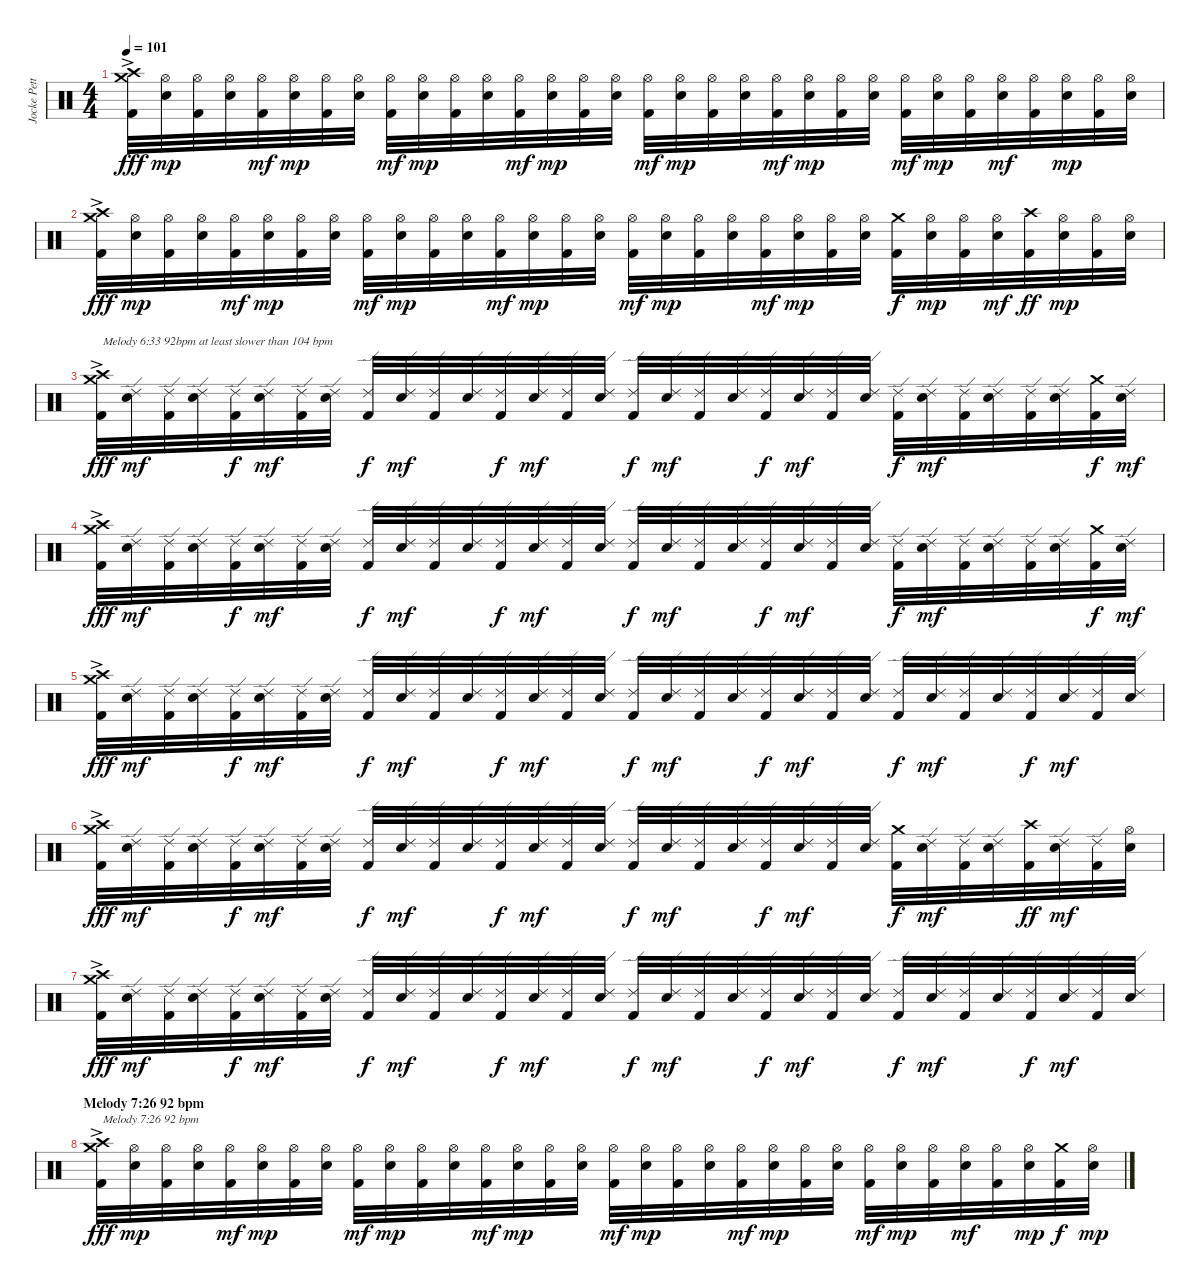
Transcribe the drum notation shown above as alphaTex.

\track ("Jocke Pettersson" "Jocke Pett") {instrument percussion}
\staff {score}
\articulation defaults
\ts (4 4)
\tempo 101
\clef neutral
\ks c
("Kick (hit) 2" "Crash high (hit)"{ac} "Crash medium (hit)"{ac}).32{dy fff} ("Electric Snare (hit)" "Hi-Hat (open)").32{dy mp} ("Kick (hit) 2" "Hi-Hat (open)").32 ("Electric Snare (hit)" "Hi-Hat (open)").32 ("Kick (hit) 2" "Hi-Hat (open)").32{dy mf} ("Electric Snare (hit)" "Hi-Hat (open)").32{dy mp} ("Kick (hit) 2" "Hi-Hat (open)").32 ("Electric Snare (hit)" "Hi-Hat (open)").32 ("Kick (hit) 2" "Hi-Hat (open)").32{dy mf} ("Electric Snare (hit)" "Hi-Hat (open)").32{dy mp} ("Kick (hit) 2" "Hi-Hat (open)").32 ("Electric Snare (hit)" "Hi-Hat (open)").32 ("Kick (hit) 2" "Hi-Hat (open)").32{dy mf} ("Electric Snare (hit)" "Hi-Hat (open)").32{dy mp} ("Kick (hit) 2" "Hi-Hat (open)").32 ("Electric Snare (hit)" "Hi-Hat (open)").32 ("Kick (hit) 2" "Hi-Hat (open)").32{dy mf} ("Electric Snare (hit)" "Hi-Hat (open)").32{dy mp} ("Kick (hit) 2" "Hi-Hat (open)").32 ("Electric Snare (hit)" "Hi-Hat (open)").32 ("Kick (hit) 2" "Hi-Hat (open)").32{dy mf} ("Electric Snare (hit)" "Hi-Hat (open)").32{dy mp} ("Kick (hit) 2" "Hi-Hat (open)").32 ("Electric Snare (hit)" "Hi-Hat (open)").32 ("Kick (hit) 2" "Hi-Hat (open)").32{dy mf} ("Electric Snare (hit)" "Hi-Hat (open)").32{dy mp} ("Kick (hit) 2" "Hi-Hat (open)").32 ("Electric Snare (hit)" "Hi-Hat (open)").32{dy mf} ("Kick (hit) 2" "Hi-Hat (open)").32 ("Electric Snare (hit)" "Hi-Hat (open)").32{dy mp} ("Kick (hit) 2" "Hi-Hat (open)").32 ("Electric Snare (hit)" "Hi-Hat (open)").32 |
("Kick (hit) 2" "Crash high (hit)"{ac} "Crash medium (hit)"{ac}).32{dy fff} ("Electric Snare (hit)" "Hi-Hat (open)").32{dy mp} ("Kick (hit) 2" "Hi-Hat (open)").32 ("Electric Snare (hit)" "Hi-Hat (open)").32 ("Kick (hit) 2" "Hi-Hat (open)").32{dy mf} ("Electric Snare (hit)" "Hi-Hat (open)").32{dy mp} ("Kick (hit) 2" "Hi-Hat (open)").32 ("Electric Snare (hit)" "Hi-Hat (open)").32 ("Kick (hit) 2" "Hi-Hat (open)").32{dy mf} ("Electric Snare (hit)" "Hi-Hat (open)").32{dy mp} ("Kick (hit) 2" "Hi-Hat (open)").32 ("Electric Snare (hit)" "Hi-Hat (open)").32 ("Kick (hit) 2" "Hi-Hat (open)").32{dy mf} ("Electric Snare (hit)" "Hi-Hat (open)").32{dy mp} ("Kick (hit) 2" "Hi-Hat (open)").32 ("Electric Snare (hit)" "Hi-Hat (open)").32 ("Kick (hit) 2" "Hi-Hat (open)").32{dy mf} ("Electric Snare (hit)" "Hi-Hat (open)").32{dy mp} ("Kick (hit) 2" "Hi-Hat (open)").32 ("Electric Snare (hit)" "Hi-Hat (open)").32 ("Kick (hit) 2" "Hi-Hat (open)").32{dy mf} ("Electric Snare (hit)" "Hi-Hat (open)").32{dy mp} ("Kick (hit) 2" "Hi-Hat (open)").32 ("Electric Snare (hit)" "Hi-Hat (open)").32 ("Kick (hit) 2" "Crash medium (hit)").32{dy f} ("Electric Snare (hit)" "Hi-Hat (open)").32{dy mp} ("Kick (hit) 2" "Hi-Hat (open)").32 ("Electric Snare (hit)" "Hi-Hat (open)").32{dy mf} ("Kick (hit) 2" "Crash high (hit)").32{dy ff} ("Electric Snare (hit)" "Hi-Hat (open)").32{dy mp} ("Kick (hit) 2" "Hi-Hat (open)").32 ("Electric Snare (hit)" "Hi-Hat (open)").32 |
("Kick (hit) 2" "Crash high (hit)"{ac} "Crash medium (hit)"{ac}).32{txt "Melody 6:33 92bpm at least slower than 104 bpm" dy fff} ("Electric Snare (hit)" "Ride (edge) 2").32{dy mf} ("Kick (hit) 2" "Ride (edge) 2").32 ("Electric Snare (hit)" "Ride (edge) 2").32 ("Kick (hit) 2" "Ride (edge) 2").32{dy f} ("Electric Snare (hit)" "Ride (edge) 2").32{dy mf} ("Kick (hit) 2" "Ride (edge) 2").32 ("Electric Snare (hit)" "Ride (edge) 2").32 ("Kick (hit) 2" "Ride (edge) 2").32{dy f} ("Electric Snare (hit)" "Ride (edge) 2").32{dy mf} ("Kick (hit) 2" "Ride (edge) 2").32 ("Electric Snare (hit)" "Ride (edge) 2").32 ("Kick (hit) 2" "Ride (edge) 2").32{dy f} ("Electric Snare (hit)" "Ride (edge) 2").32{dy mf} ("Kick (hit) 2" "Ride (edge) 2").32 ("Electric Snare (hit)" "Ride (edge) 2").32 ("Kick (hit) 2" "Ride (edge) 2").32{dy f} ("Electric Snare (hit)" "Ride (edge) 2").32{dy mf} ("Kick (hit) 2" "Ride (edge) 2").32 ("Electric Snare (hit)" "Ride (edge) 2").32 ("Kick (hit) 2" "Ride (edge) 2").32{dy f} ("Electric Snare (hit)" "Ride (edge) 2").32{dy mf} ("Kick (hit) 2" "Ride (edge) 2").32 ("Electric Snare (hit)" "Ride (edge) 2").32 ("Kick (hit) 2" "Ride (edge) 2").32{dy f} ("Electric Snare (hit)" "Ride (edge) 2").32{dy mf} ("Kick (hit) 2" "Ride (edge) 2").32 ("Electric Snare (hit)" "Ride (edge) 2").32 ("Kick (hit) 2" "Ride (edge) 2").32 ("Electric Snare (hit)" "Ride (edge) 2").32 ("Kick (hit) 2" "Crash medium (hit)").32{dy f} ("Electric Snare (hit)" "Ride (edge) 2").32{dy mf} |
("Kick (hit) 2" "Crash high (hit)"{ac} "Crash medium (hit)"{ac}).32{dy fff} ("Electric Snare (hit)" "Ride (edge) 2").32{dy mf} ("Kick (hit) 2" "Ride (edge) 2").32 ("Electric Snare (hit)" "Ride (edge) 2").32 ("Kick (hit) 2" "Ride (edge) 2").32{dy f} ("Electric Snare (hit)" "Ride (edge) 2").32{dy mf} ("Kick (hit) 2" "Ride (edge) 2").32 ("Electric Snare (hit)" "Ride (edge) 2").32 ("Kick (hit) 2" "Ride (edge) 2").32{dy f} ("Electric Snare (hit)" "Ride (edge) 2").32{dy mf} ("Kick (hit) 2" "Ride (edge) 2").32 ("Electric Snare (hit)" "Ride (edge) 2").32 ("Kick (hit) 2" "Ride (edge) 2").32{dy f} ("Electric Snare (hit)" "Ride (edge) 2").32{dy mf} ("Kick (hit) 2" "Ride (edge) 2").32 ("Electric Snare (hit)" "Ride (edge) 2").32 ("Kick (hit) 2" "Ride (edge) 2").32{dy f} ("Electric Snare (hit)" "Ride (edge) 2").32{dy mf} ("Kick (hit) 2" "Ride (edge) 2").32 ("Electric Snare (hit)" "Ride (edge) 2").32 ("Kick (hit) 2" "Ride (edge) 2").32{dy f} ("Electric Snare (hit)" "Ride (edge) 2").32{dy mf} ("Kick (hit) 2" "Ride (edge) 2").32 ("Electric Snare (hit)" "Ride (edge) 2").32 ("Kick (hit) 2" "Ride (edge) 2").32{dy f} ("Electric Snare (hit)" "Ride (edge) 2").32{dy mf} ("Kick (hit) 2" "Ride (edge) 2").32 ("Electric Snare (hit)" "Ride (edge) 2").32 ("Kick (hit) 2" "Ride (edge) 2").32 ("Electric Snare (hit)" "Ride (edge) 2").32 ("Kick (hit) 2" "Crash medium (hit)").32{dy f} ("Electric Snare (hit)" "Ride (edge) 2").32{dy mf} |
("Kick (hit) 2" "Crash high (hit)"{ac} "Crash medium (hit)"{ac}).32{dy fff} ("Electric Snare (hit)" "Ride (edge) 2").32{dy mf} ("Kick (hit) 2" "Ride (edge) 2").32 ("Electric Snare (hit)" "Ride (edge) 2").32 ("Kick (hit) 2" "Ride (edge) 2").32{dy f} ("Electric Snare (hit)" "Ride (edge) 2").32{dy mf} ("Kick (hit) 2" "Ride (edge) 2").32 ("Electric Snare (hit)" "Ride (edge) 2").32 ("Kick (hit) 2" "Ride (edge) 2").32{dy f} ("Electric Snare (hit)" "Ride (edge) 2").32{dy mf} ("Kick (hit) 2" "Ride (edge) 2").32 ("Electric Snare (hit)" "Ride (edge) 2").32 ("Kick (hit) 2" "Ride (edge) 2").32{dy f} ("Electric Snare (hit)" "Ride (edge) 2").32{dy mf} ("Kick (hit) 2" "Ride (edge) 2").32 ("Electric Snare (hit)" "Ride (edge) 2").32 ("Kick (hit) 2" "Ride (edge) 2").32{dy f} ("Electric Snare (hit)" "Ride (edge) 2").32{dy mf} ("Kick (hit) 2" "Ride (edge) 2").32 ("Electric Snare (hit)" "Ride (edge) 2").32 ("Kick (hit) 2" "Ride (edge) 2").32{dy f} ("Electric Snare (hit)" "Ride (edge) 2").32{dy mf} ("Kick (hit) 2" "Ride (edge) 2").32 ("Electric Snare (hit)" "Ride (edge) 2").32 ("Kick (hit) 2" "Ride (edge) 2").32{dy f} ("Electric Snare (hit)" "Ride (edge) 2").32{dy mf} ("Kick (hit) 2" "Ride (edge) 2").32 ("Electric Snare (hit)" "Ride (edge) 2").32 ("Kick (hit) 2" "Ride (edge) 2").32{dy f} ("Electric Snare (hit)" "Ride (edge) 2").32{dy mf} ("Kick (hit) 2" "Ride (edge) 2").32 ("Electric Snare (hit)" "Ride (edge) 2").32 |
("Kick (hit) 2" "Crash high (hit)"{ac} "Crash medium (hit)"{ac}).32{dy fff} ("Electric Snare (hit)" "Ride (edge) 2").32{dy mf} ("Kick (hit) 2" "Ride (edge) 2").32 ("Electric Snare (hit)" "Ride (edge) 2").32 ("Kick (hit) 2" "Ride (edge) 2").32{dy f} ("Electric Snare (hit)" "Ride (edge) 2").32{dy mf} ("Kick (hit) 2" "Ride (edge) 2").32 ("Electric Snare (hit)" "Ride (edge) 2").32 ("Kick (hit) 2" "Ride (edge) 2").32{dy f} ("Electric Snare (hit)" "Ride (edge) 2").32{dy mf} ("Kick (hit) 2" "Ride (edge) 2").32 ("Electric Snare (hit)" "Ride (edge) 2").32 ("Kick (hit) 2" "Ride (edge) 2").32{dy f} ("Electric Snare (hit)" "Ride (edge) 2").32{dy mf} ("Kick (hit) 2" "Ride (edge) 2").32 ("Electric Snare (hit)" "Ride (edge) 2").32 ("Kick (hit) 2" "Ride (edge) 2").32{dy f} ("Electric Snare (hit)" "Ride (edge) 2").32{dy mf} ("Kick (hit) 2" "Ride (edge) 2").32 ("Electric Snare (hit)" "Ride (edge) 2").32 ("Kick (hit) 2" "Ride (edge) 2").32{dy f} ("Electric Snare (hit)" "Ride (edge) 2").32{dy mf} ("Kick (hit) 2" "Ride (edge) 2").32 ("Electric Snare (hit)" "Ride (edge) 2").32 ("Kick (hit) 2" "Crash medium (hit)").32{dy f} ("Electric Snare (hit)" "Ride (edge) 2").32{dy mf} ("Kick (hit) 2" "Ride (edge) 2").32 ("Electric Snare (hit)" "Ride (edge) 2").32 ("Kick (hit) 2" "Crash high (hit)").32{dy ff} ("Electric Snare (hit)" "Ride (edge) 2").32{dy mf} ("Kick (hit) 2" "Ride (edge) 2").32 ("Electric Snare (hit)" "Hi-Hat (open)").32 |
("Kick (hit) 2" "Crash high (hit)"{ac} "Crash medium (hit)"{ac}).32{dy fff} ("Electric Snare (hit)" "Ride (edge) 2").32{dy mf} ("Kick (hit) 2" "Ride (edge) 2").32 ("Electric Snare (hit)" "Ride (edge) 2").32 ("Kick (hit) 2" "Ride (edge) 2").32{dy f} ("Electric Snare (hit)" "Ride (edge) 2").32{dy mf} ("Kick (hit) 2" "Ride (edge) 2").32 ("Electric Snare (hit)" "Ride (edge) 2").32 ("Kick (hit) 2" "Ride (edge) 2").32{dy f} ("Electric Snare (hit)" "Ride (edge) 2").32{dy mf} ("Kick (hit) 2" "Ride (edge) 2").32 ("Electric Snare (hit)" "Ride (edge) 2").32 ("Kick (hit) 2" "Ride (edge) 2").32{dy f} ("Electric Snare (hit)" "Ride (edge) 2").32{dy mf} ("Kick (hit) 2" "Ride (edge) 2").32 ("Electric Snare (hit)" "Ride (edge) 2").32 ("Kick (hit) 2" "Ride (edge) 2").32{dy f} ("Electric Snare (hit)" "Ride (edge) 2").32{dy mf} ("Kick (hit) 2" "Ride (edge) 2").32 ("Electric Snare (hit)" "Ride (edge) 2").32 ("Kick (hit) 2" "Ride (edge) 2").32{dy f} ("Electric Snare (hit)" "Ride (edge) 2").32{dy mf} ("Kick (hit) 2" "Ride (edge) 2").32 ("Electric Snare (hit)" "Ride (edge) 2").32 ("Kick (hit) 2" "Ride (edge) 2").32{dy f} ("Electric Snare (hit)" "Ride (edge) 2").32{dy mf} ("Kick (hit) 2" "Ride (edge) 2").32 ("Electric Snare (hit)" "Ride (edge) 2").32 ("Kick (hit) 2" "Ride (edge) 2").32{dy f} ("Electric Snare (hit)" "Ride (edge) 2").32{dy mf} ("Kick (hit) 2" "Ride (edge) 2").32 ("Electric Snare (hit)" "Ride (edge) 2").32 |
\section ("" "Melody 7:26 92 bpm")
("Kick (hit) 2" "Crash high (hit)"{ac} "Crash medium (hit)"{ac}).32{txt "Melody 7:26 92 bpm" dy fff} ("Electric Snare (hit)" "Hi-Hat (open)").32{dy mp} ("Kick (hit) 2" "Hi-Hat (open)").32 ("Electric Snare (hit)" "Hi-Hat (open)").32 ("Kick (hit) 2" "Hi-Hat (open)").32{dy mf} ("Electric Snare (hit)" "Hi-Hat (open)").32{dy mp} ("Kick (hit) 2" "Hi-Hat (open)").32 ("Electric Snare (hit)" "Hi-Hat (open)").32 ("Kick (hit) 2" "Hi-Hat (open)").32{dy mf} ("Electric Snare (hit)" "Hi-Hat (open)").32{dy mp} ("Kick (hit) 2" "Hi-Hat (open)").32 ("Electric Snare (hit)" "Hi-Hat (open)").32 ("Kick (hit) 2" "Hi-Hat (open)").32{dy mf} ("Electric Snare (hit)" "Hi-Hat (open)").32{dy mp} ("Kick (hit) 2" "Hi-Hat (open)").32 ("Electric Snare (hit)" "Hi-Hat (open)").32 ("Kick (hit) 2" "Hi-Hat (open)").32{dy mf} ("Electric Snare (hit)" "Hi-Hat (open)").32{dy mp} ("Kick (hit) 2" "Hi-Hat (open)").32 ("Electric Snare (hit)" "Hi-Hat (open)").32 ("Kick (hit) 2" "Hi-Hat (open)").32{dy mf} ("Electric Snare (hit)" "Hi-Hat (open)").32{dy mp} ("Kick (hit) 2" "Hi-Hat (open)").32 ("Electric Snare (hit)" "Hi-Hat (open)").32 ("Kick (hit) 2" "Hi-Hat (open)").32{dy mf} ("Electric Snare (hit)" "Hi-Hat (open)").32{dy mp} ("Kick (hit) 2" "Hi-Hat (open)").32 ("Electric Snare (hit)" "Hi-Hat (open)").32{dy mf} ("Kick (hit) 2" "Hi-Hat (open)").32 ("Electric Snare (hit)" "Hi-Hat (open)").32{dy mp} ("Kick (hit) 2" "Crash medium (hit)").32{dy f} ("Electric Snare (hit)" "Hi-Hat (open)").32{dy mp}
